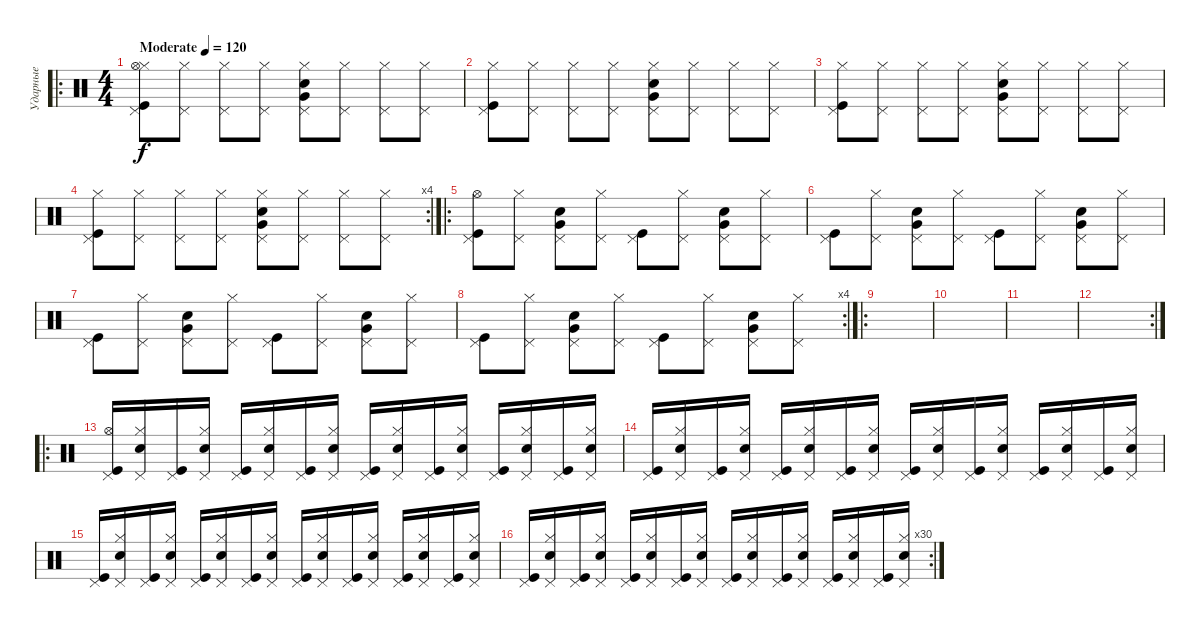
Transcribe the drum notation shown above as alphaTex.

\track ("Ударные" "Ударные") {instrument percussion}
\staff {score}
\articulation defaults
\ro
\ts (4 4)
\tempo (120 "Moderate")
\tempo 130
\tempo (120 "Moderate")
\clef neutral
\ks c
("Pedal Hi-Hat (hit)" "Hi-Hat (closed)" "Hi-Hat (open)" "Kick (hit)").8{dy f} ("Pedal Hi-Hat (hit)" "Hi-Hat (closed)").8 ("Pedal Hi-Hat (hit)" "Hi-Hat (closed)").8 ("Pedal Hi-Hat (hit)" "Hi-Hat (closed)").8 ("Pedal Hi-Hat (hit)" "Hi-Hat (closed)" "Electric Snare (hit)" "Very Low Tom (hit)").8 ("Pedal Hi-Hat (hit)" "Hi-Hat (closed)").8 ("Pedal Hi-Hat (hit)" "Hi-Hat (closed)").8 ("Pedal Hi-Hat (hit)" "Hi-Hat (closed)").8 |
("Pedal Hi-Hat (hit)" "Hi-Hat (closed)" "Kick (hit)").8 ("Pedal Hi-Hat (hit)" "Hi-Hat (closed)").8 ("Pedal Hi-Hat (hit)" "Hi-Hat (closed)").8 ("Pedal Hi-Hat (hit)" "Hi-Hat (closed)").8 ("Pedal Hi-Hat (hit)" "Hi-Hat (closed)" "Electric Snare (hit)" "Very Low Tom (hit)").8 ("Pedal Hi-Hat (hit)" "Hi-Hat (closed)").8 ("Pedal Hi-Hat (hit)" "Hi-Hat (closed)").8 ("Pedal Hi-Hat (hit)" "Hi-Hat (closed)").8 |
("Pedal Hi-Hat (hit)" "Hi-Hat (closed)" "Kick (hit)").8 ("Pedal Hi-Hat (hit)" "Hi-Hat (closed)").8 ("Pedal Hi-Hat (hit)" "Hi-Hat (closed)").8 ("Pedal Hi-Hat (hit)" "Hi-Hat (closed)").8 ("Pedal Hi-Hat (hit)" "Hi-Hat (closed)" "Electric Snare (hit)" "Very Low Tom (hit)").8 ("Pedal Hi-Hat (hit)" "Hi-Hat (closed)").8 ("Pedal Hi-Hat (hit)" "Hi-Hat (closed)").8 ("Pedal Hi-Hat (hit)" "Hi-Hat (closed)").8 |
\rc 4
("Pedal Hi-Hat (hit)" "Hi-Hat (closed)" "Kick (hit)").8 ("Pedal Hi-Hat (hit)" "Hi-Hat (closed)").8 ("Pedal Hi-Hat (hit)" "Hi-Hat (closed)").8 ("Pedal Hi-Hat (hit)" "Hi-Hat (closed)").8 ("Pedal Hi-Hat (hit)" "Hi-Hat (closed)" "Electric Snare (hit)" "Very Low Tom (hit)").8 ("Pedal Hi-Hat (hit)" "Hi-Hat (closed)").8 ("Pedal Hi-Hat (hit)" "Hi-Hat (closed)").8 ("Pedal Hi-Hat (hit)" "Hi-Hat (closed)").8 |
\ro
("Pedal Hi-Hat (hit)" "Hi-Hat (open)" "Kick (hit)").8 ("Pedal Hi-Hat (hit)" "Hi-Hat (closed)").8 ("Pedal Hi-Hat (hit)" "Electric Snare (hit)" "Very Low Tom (hit)").8 ("Pedal Hi-Hat (hit)" "Hi-Hat (closed)").8 ("Pedal Hi-Hat (hit)" "Kick (hit)").8 ("Pedal Hi-Hat (hit)" "Hi-Hat (closed)").8 ("Pedal Hi-Hat (hit)" "Electric Snare (hit)" "Very Low Tom (hit)").8 ("Pedal Hi-Hat (hit)" "Hi-Hat (closed)").8 |
("Pedal Hi-Hat (hit)" "Kick (hit)").8 ("Pedal Hi-Hat (hit)" "Hi-Hat (closed)").8 ("Pedal Hi-Hat (hit)" "Electric Snare (hit)" "Very Low Tom (hit)").8 ("Pedal Hi-Hat (hit)" "Hi-Hat (closed)").8 ("Pedal Hi-Hat (hit)" "Kick (hit)").8 ("Pedal Hi-Hat (hit)" "Hi-Hat (closed)").8 ("Pedal Hi-Hat (hit)" "Electric Snare (hit)" "Very Low Tom (hit)").8 ("Pedal Hi-Hat (hit)" "Hi-Hat (closed)").8 |
("Pedal Hi-Hat (hit)" "Kick (hit)").8 ("Pedal Hi-Hat (hit)" "Hi-Hat (closed)").8 ("Pedal Hi-Hat (hit)" "Electric Snare (hit)" "Very Low Tom (hit)").8 ("Pedal Hi-Hat (hit)" "Hi-Hat (closed)").8 ("Pedal Hi-Hat (hit)" "Kick (hit)").8 ("Pedal Hi-Hat (hit)" "Hi-Hat (closed)").8 ("Pedal Hi-Hat (hit)" "Electric Snare (hit)" "Very Low Tom (hit)").8 ("Pedal Hi-Hat (hit)" "Hi-Hat (closed)").8 |
\rc 4
("Pedal Hi-Hat (hit)" "Kick (hit)").8 ("Pedal Hi-Hat (hit)" "Hi-Hat (closed)").8 ("Pedal Hi-Hat (hit)" "Electric Snare (hit)" "Very Low Tom (hit)").8 ("Pedal Hi-Hat (hit)" "Hi-Hat (closed)").8 ("Pedal Hi-Hat (hit)" "Kick (hit)").8 ("Pedal Hi-Hat (hit)" "Hi-Hat (closed)").8 ("Pedal Hi-Hat (hit)" "Electric Snare (hit)" "Very Low Tom (hit)").8 ("Pedal Hi-Hat (hit)" "Hi-Hat (closed)").8 |
\ro
|
|
|
\rc 2
|
\ro
("Pedal Hi-Hat (hit)" "Hi-Hat (open)" "Kick (hit)").16 ("Pedal Hi-Hat (hit)" "Hi-Hat (closed)" "Electric Snare (hit)").16 ("Pedal Hi-Hat (hit)" "Kick (hit)").16 ("Pedal Hi-Hat (hit)" "Hi-Hat (closed)" "Electric Snare (hit)").16 ("Pedal Hi-Hat (hit)" "Kick (hit)").16 ("Pedal Hi-Hat (hit)" "Hi-Hat (closed)" "Electric Snare (hit)").16 ("Pedal Hi-Hat (hit)" "Kick (hit)").16 ("Pedal Hi-Hat (hit)" "Hi-Hat (closed)" "Electric Snare (hit)").16 ("Pedal Hi-Hat (hit)" "Kick (hit)").16 ("Pedal Hi-Hat (hit)" "Hi-Hat (closed)" "Electric Snare (hit)").16 ("Pedal Hi-Hat (hit)" "Kick (hit)").16 ("Pedal Hi-Hat (hit)" "Hi-Hat (closed)" "Electric Snare (hit)").16 ("Pedal Hi-Hat (hit)" "Kick (hit)").16 ("Pedal Hi-Hat (hit)" "Hi-Hat (closed)" "Electric Snare (hit)").16 ("Pedal Hi-Hat (hit)" "Kick (hit)").16 ("Pedal Hi-Hat (hit)" "Hi-Hat (closed)" "Electric Snare (hit)").16 |
("Pedal Hi-Hat (hit)" "Kick (hit)").16 ("Pedal Hi-Hat (hit)" "Hi-Hat (closed)" "Electric Snare (hit)").16 ("Pedal Hi-Hat (hit)" "Kick (hit)").16 ("Pedal Hi-Hat (hit)" "Hi-Hat (closed)" "Electric Snare (hit)").16 ("Pedal Hi-Hat (hit)" "Kick (hit)").16 ("Pedal Hi-Hat (hit)" "Hi-Hat (closed)" "Electric Snare (hit)").16 ("Pedal Hi-Hat (hit)" "Kick (hit)").16 ("Pedal Hi-Hat (hit)" "Hi-Hat (closed)" "Electric Snare (hit)").16 ("Pedal Hi-Hat (hit)" "Kick (hit)").16 ("Pedal Hi-Hat (hit)" "Hi-Hat (closed)" "Electric Snare (hit)").16 ("Pedal Hi-Hat (hit)" "Kick (hit)").16 ("Pedal Hi-Hat (hit)" "Hi-Hat (closed)" "Electric Snare (hit)").16 ("Pedal Hi-Hat (hit)" "Kick (hit)").16 ("Pedal Hi-Hat (hit)" "Hi-Hat (closed)" "Electric Snare (hit)").16 ("Pedal Hi-Hat (hit)" "Kick (hit)").16 ("Pedal Hi-Hat (hit)" "Hi-Hat (closed)" "Electric Snare (hit)").16 |
("Pedal Hi-Hat (hit)" "Kick (hit)").16 ("Pedal Hi-Hat (hit)" "Hi-Hat (closed)" "Electric Snare (hit)").16 ("Pedal Hi-Hat (hit)" "Kick (hit)").16 ("Pedal Hi-Hat (hit)" "Hi-Hat (closed)" "Electric Snare (hit)").16 ("Pedal Hi-Hat (hit)" "Kick (hit)").16 ("Pedal Hi-Hat (hit)" "Hi-Hat (closed)" "Electric Snare (hit)").16 ("Pedal Hi-Hat (hit)" "Kick (hit)").16 ("Pedal Hi-Hat (hit)" "Hi-Hat (closed)" "Electric Snare (hit)").16 ("Pedal Hi-Hat (hit)" "Kick (hit)").16 ("Pedal Hi-Hat (hit)" "Hi-Hat (closed)" "Electric Snare (hit)").16 ("Pedal Hi-Hat (hit)" "Kick (hit)").16 ("Pedal Hi-Hat (hit)" "Hi-Hat (closed)" "Electric Snare (hit)").16 ("Pedal Hi-Hat (hit)" "Kick (hit)").16 ("Pedal Hi-Hat (hit)" "Hi-Hat (closed)" "Electric Snare (hit)").16 ("Pedal Hi-Hat (hit)" "Kick (hit)").16 ("Pedal Hi-Hat (hit)" "Hi-Hat (closed)" "Electric Snare (hit)").16 |
\rc 30
("Pedal Hi-Hat (hit)" "Kick (hit)").16 ("Pedal Hi-Hat (hit)" "Hi-Hat (closed)" "Electric Snare (hit)").16 ("Pedal Hi-Hat (hit)" "Kick (hit)").16 ("Pedal Hi-Hat (hit)" "Hi-Hat (closed)" "Electric Snare (hit)").16 ("Pedal Hi-Hat (hit)" "Kick (hit)").16 ("Pedal Hi-Hat (hit)" "Hi-Hat (closed)" "Electric Snare (hit)").16 ("Pedal Hi-Hat (hit)" "Kick (hit)").16 ("Pedal Hi-Hat (hit)" "Hi-Hat (closed)" "Electric Snare (hit)").16 ("Pedal Hi-Hat (hit)" "Kick (hit)").16 ("Pedal Hi-Hat (hit)" "Hi-Hat (closed)" "Electric Snare (hit)").16 ("Pedal Hi-Hat (hit)" "Kick (hit)").16 ("Pedal Hi-Hat (hit)" "Hi-Hat (closed)" "Electric Snare (hit)").16 ("Pedal Hi-Hat (hit)" "Kick (hit)").16 ("Pedal Hi-Hat (hit)" "Hi-Hat (closed)" "Electric Snare (hit)").16 ("Pedal Hi-Hat (hit)" "Kick (hit)").16 ("Pedal Hi-Hat (hit)" "Hi-Hat (closed)" "Electric Snare (hit)").16
